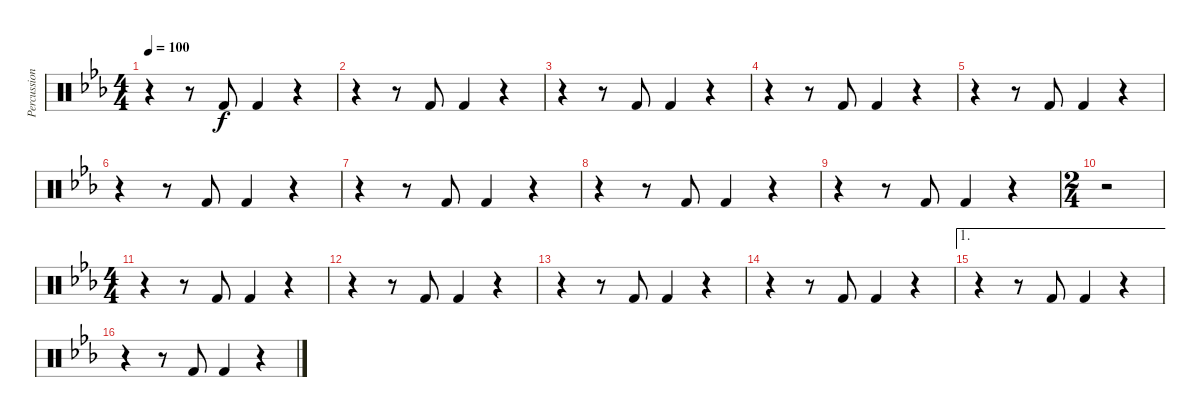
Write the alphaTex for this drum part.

\track ("Percussion" "Percussion") {instrument percussion}
\staff {score}
\articulation defaults
\ts (4 4)
\tempo 100
\clef neutral
\ks cminor
r.4{dy f} r.8 "Kick (hit) 2".8 "Kick (hit) 2".4 r.4 |
r.4 r.8 "Kick (hit) 2".8 "Kick (hit) 2".4 r.4 |
r.4 r.8 "Kick (hit) 2".8 "Kick (hit) 2".4 r.4 |
r.4 r.8 "Kick (hit) 2".8 "Kick (hit) 2".4 r.4 |
r.4 r.8 "Kick (hit) 2".8 "Kick (hit) 2".4 r.4 |
r.4 r.8 "Kick (hit) 2".8 "Kick (hit) 2".4 r.4 |
r.4 r.8 "Kick (hit) 2".8 "Kick (hit) 2".4 r.4 |
r.4 r.8 "Kick (hit) 2".8 "Kick (hit) 2".4 r.4 |
r.4 r.8 "Kick (hit) 2".8 "Kick (hit) 2".4 r.4 |
\ts (2 4)
r.2 |
\ts (4 4)
r.4 r.8 "Kick (hit) 2".8 "Kick (hit) 2".4 r.4 |
r.4 r.8 "Kick (hit) 2".8 "Kick (hit) 2".4 r.4 |
r.4 r.8 "Kick (hit) 2".8 "Kick (hit) 2".4 r.4 |
r.4 r.8 "Kick (hit) 2".8 "Kick (hit) 2".4 r.4 |
\ae 1
r.4 r.8 "Kick (hit) 2".8 "Kick (hit) 2".4 r.4 |
r.4 r.8 "Kick (hit) 2".8 "Kick (hit) 2".4 r.4
